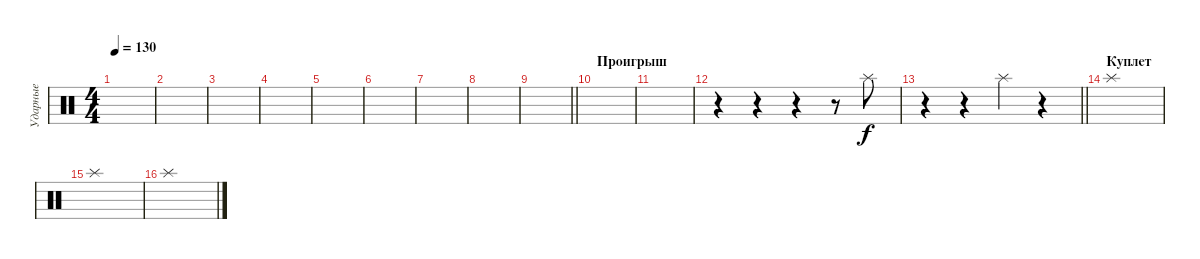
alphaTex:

\track ("Ударные" "Ударные") {instrument percussion}
\staff {score}
\articulation defaults
\ts (4 4)
\tempo 130
\clef neutral
\ks c
|
|
|
|
|
|
|
|
\barLineRight lightlight
|
\section ("" "Проигрыш")
|
|
r.4 r.4 r.4 r.8 "Splash (hit)".8 |
\barLineRight lightlight
r.4 r.4 "Splash (hit)".4 r.4 |
\section ("" "Куплет")
"Splash (hit)".1 |
"Splash (hit)".1 |
"Splash (hit)".1
